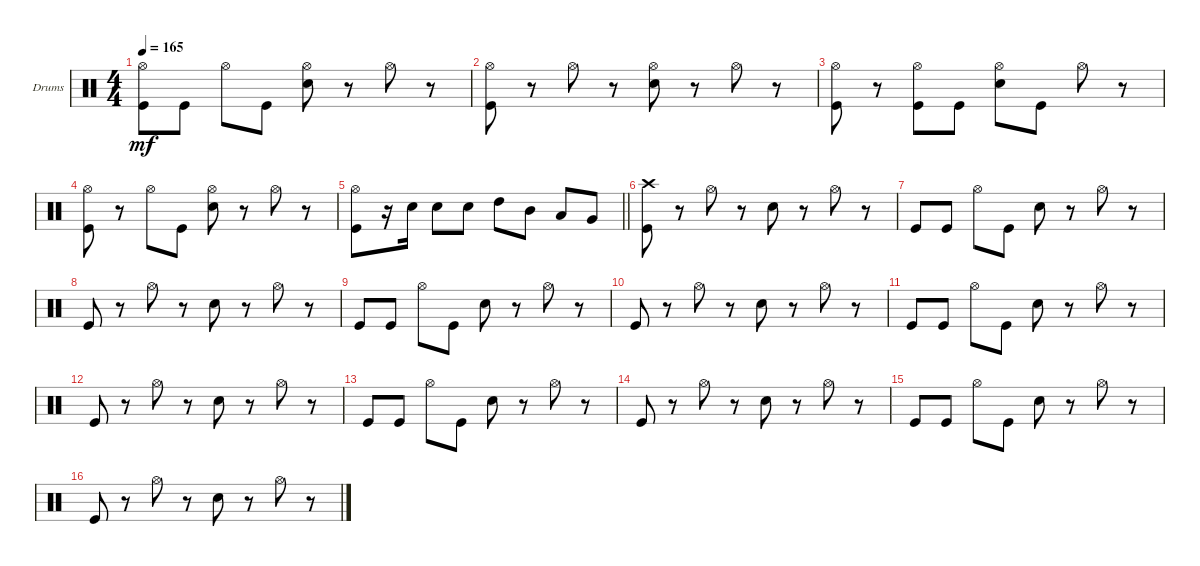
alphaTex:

\defaultSystemsLayout 4
\bracketExtendMode groupsimilarinstruments
\firstSystemTrackNameOrientation horizontal
\otherSystemsTrackNameOrientation horizontal
\track ("Drumkit" "Drums") {instrument percussion}
\staff {score}
\articulation defaults
\ts (4 4)
\tempo 165
\clef neutral
\ks c
("Kick (hit)" "Hi-Hat (open)").8{dy mf} "Kick (hit)".8 "Hi-Hat (open)".8 "Kick (hit)".8 ("Hi-Hat (open)" "Snare (hit) 2").8 r.8 "Hi-Hat (open)".8 r.8 |
("Kick (hit)" "Hi-Hat (open)").8 r.8 "Hi-Hat (open)".8 r.8 ("Hi-Hat (open)" "Snare (hit) 2").8 r.8 "Hi-Hat (open)".8 r.8 |
("Kick (hit)" "Hi-Hat (open)").8 r.8 ("Hi-Hat (open)" "Kick (hit)").8 "Kick (hit)".8 ("Hi-Hat (open)" "Snare (hit) 2").8 "Kick (hit)".8 "Hi-Hat (open)".8 r.8 |
("Kick (hit)" "Hi-Hat (open)").8 r.8 "Hi-Hat (open)".8 "Kick (hit)".8 ("Hi-Hat (open)" "Snare (hit) 2").8 r.8 "Hi-Hat (open)".8 r.8 |
\barLineRight lightlight
("Kick (hit)" "Hi-Hat (open)").8 r.16 "Snare (hit) 2".16 "Snare (hit) 2".8 "Snare (hit) 2".8 "High Tom (hit)".8 "Mid Tom (hit)".8 "Low Tom (hit)".8 "Very Low Tom (hit)".8 |
("Kick (hit)" "Crash high (hit)").8 r.8 "Hi-Hat (open)".8 r.8 "Snare (hit) 2".8 r.8 "Hi-Hat (open)".8 r.8 |
"Kick (hit)".8 "Kick (hit)".8 "Hi-Hat (open)".8 "Kick (hit)".8 "Snare (hit) 2".8 r.8 "Hi-Hat (open)".8 r.8 |
"Kick (hit)".8 r.8 "Hi-Hat (open)".8 r.8 "Snare (hit) 2".8 r.8 "Hi-Hat (open)".8 r.8 |
"Kick (hit)".8 "Kick (hit)".8 "Hi-Hat (open)".8 "Kick (hit)".8 "Snare (hit) 2".8 r.8 "Hi-Hat (open)".8 r.8 |
"Kick (hit)".8 r.8 "Hi-Hat (open)".8 r.8 "Snare (hit) 2".8 r.8 "Hi-Hat (open)".8 r.8 |
"Kick (hit)".8 "Kick (hit)".8 "Hi-Hat (open)".8 "Kick (hit)".8 "Snare (hit) 2".8 r.8 "Hi-Hat (open)".8 r.8 |
"Kick (hit)".8 r.8 "Hi-Hat (open)".8 r.8 "Snare (hit) 2".8 r.8 "Hi-Hat (open)".8 r.8 |
"Kick (hit)".8 "Kick (hit)".8 "Hi-Hat (open)".8 "Kick (hit)".8 "Snare (hit) 2".8 r.8 "Hi-Hat (open)".8 r.8 |
"Kick (hit)".8 r.8 "Hi-Hat (open)".8 r.8 "Snare (hit) 2".8 r.8 "Hi-Hat (open)".8 r.8 |
"Kick (hit)".8 "Kick (hit)".8 "Hi-Hat (open)".8 "Kick (hit)".8 "Snare (hit) 2".8 r.8 "Hi-Hat (open)".8 r.8 |
"Kick (hit)".8 r.8 "Hi-Hat (open)".8 r.8 "Snare (hit) 2".8 r.8 "Hi-Hat (open)".8 r.8
